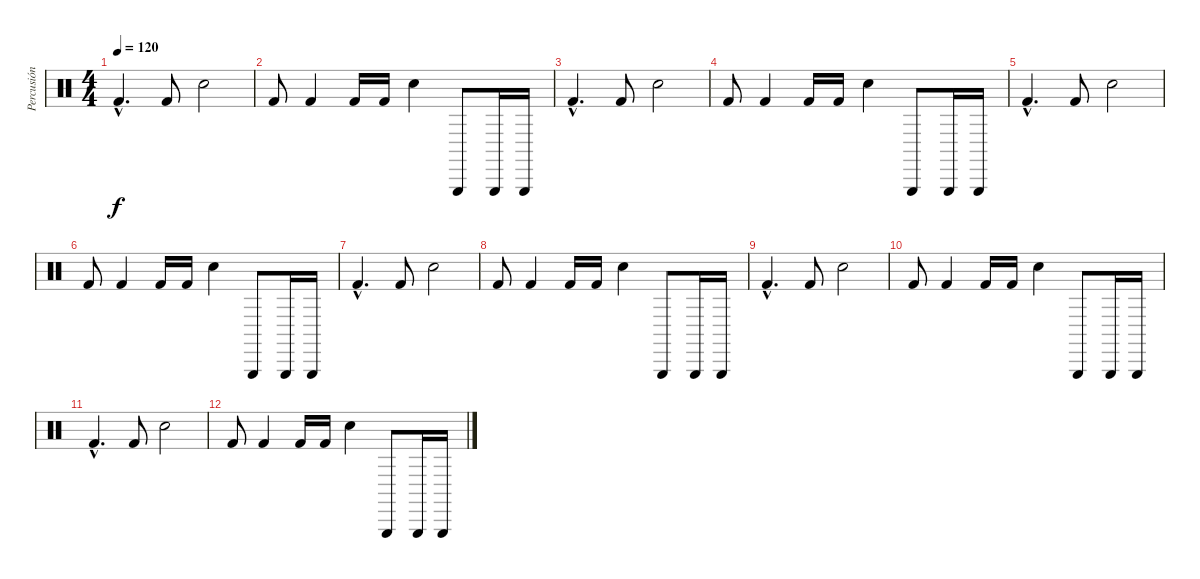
\track ("Percusión" "Percusión") {instrument percussion}
\staff {score}
\articulation defaults
\ts (4 4)
\tempo 120
\clef neutral
\ks c "Kick (hit) 2"{hac}.4{d dy f} "Kick (hit) 2".8 "Electric Snare (hit)".2
|
"Kick (hit) 2".8 "Kick (hit) 2".4 "Kick (hit) 2".16 "Kick (hit) 2".16 "Electric Snare (hit)".4 "Triangle (hit)".8 "Triangle (hit)".16 "Triangle (hit)".16 |
"Kick (hit) 2"{hac}.4{d} "Kick (hit) 2".8 "Electric Snare (hit)".2 |
"Kick (hit) 2".8 "Kick (hit) 2".4 "Kick (hit) 2".16 "Kick (hit) 2".16 "Electric Snare (hit)".4 "Triangle (hit)".8 "Triangle (hit)".16 "Triangle (hit)".16 |
"Kick (hit) 2"{hac}.4{d} "Kick (hit) 2".8 "Electric Snare (hit)".2 |
"Kick (hit) 2".8 "Kick (hit) 2".4 "Kick (hit) 2".16 "Kick (hit) 2".16 "Electric Snare (hit)".4 "Triangle (hit)".8 "Triangle (hit)".16 "Triangle (hit)".16 |
"Kick (hit) 2"{hac}.4{d} "Kick (hit) 2".8 "Electric Snare (hit)".2 |
"Kick (hit) 2".8 "Kick (hit) 2".4 "Kick (hit) 2".16 "Kick (hit) 2".16 "Electric Snare (hit)".4 "Triangle (hit)".8 "Triangle (hit)".16 "Triangle (hit)".16 |
"Kick (hit) 2"{hac}.4{d} "Kick (hit) 2".8 "Electric Snare (hit)".2 |
"Kick (hit) 2".8 "Kick (hit) 2".4 "Kick (hit) 2".16 "Kick (hit) 2".16 "Electric Snare (hit)".4 "Triangle (hit)".8 "Triangle (hit)".16 "Triangle (hit)".16 |
"Kick (hit) 2"{hac}.4{d} "Kick (hit) 2".8 "Electric Snare (hit)".2 |
"Kick (hit) 2".8 "Kick (hit) 2".4 "Kick (hit) 2".16 "Kick (hit) 2".16 "Electric Snare (hit)".4 "Triangle (hit)".8 "Triangle (hit)".16 "Triangle (hit)".16
